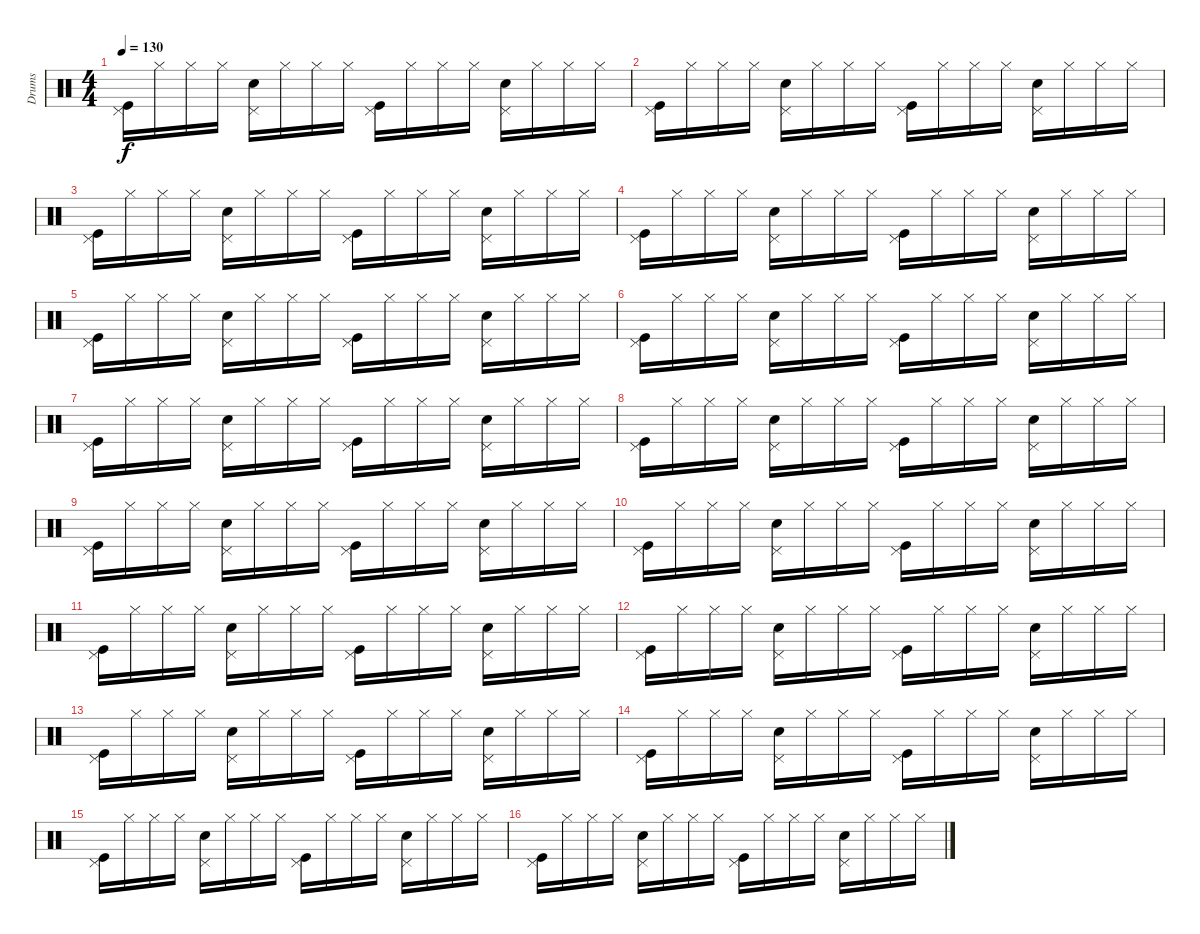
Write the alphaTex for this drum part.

\track ("Drums" "Drums") {instrument percussion}
\staff {score}
\articulation defaults
\ts (4 4)
\tempo 130
\clef neutral
\ks c
("Pedal Hi-Hat (hit)" "Kick (hit)").16{dy f} "Hi-Hat (closed)".16 "Hi-Hat (closed)".16 "Hi-Hat (closed)".16 ("Pedal Hi-Hat (hit)" "Snare (hit) 2").16 "Hi-Hat (closed)".16 "Hi-Hat (closed)".16 "Hi-Hat (closed)".16 ("Pedal Hi-Hat (hit)" "Kick (hit)").16 "Hi-Hat (closed)".16 "Hi-Hat (closed)".16 "Hi-Hat (closed)".16 ("Pedal Hi-Hat (hit)" "Snare (hit) 2").16 "Hi-Hat (closed)".16 "Hi-Hat (closed)".16 "Hi-Hat (closed)".16 |
("Pedal Hi-Hat (hit)" "Kick (hit)").16 "Hi-Hat (closed)".16 "Hi-Hat (closed)".16 "Hi-Hat (closed)".16 ("Pedal Hi-Hat (hit)" "Snare (hit) 2").16 "Hi-Hat (closed)".16 "Hi-Hat (closed)".16 "Hi-Hat (closed)".16 ("Pedal Hi-Hat (hit)" "Kick (hit)").16 "Hi-Hat (closed)".16 "Hi-Hat (closed)".16 "Hi-Hat (closed)".16 ("Pedal Hi-Hat (hit)" "Snare (hit) 2").16 "Hi-Hat (closed)".16 "Hi-Hat (closed)".16 "Hi-Hat (closed)".16 |
("Pedal Hi-Hat (hit)" "Kick (hit)").16 "Hi-Hat (closed)".16 "Hi-Hat (closed)".16 "Hi-Hat (closed)".16 ("Pedal Hi-Hat (hit)" "Snare (hit) 2").16 "Hi-Hat (closed)".16 "Hi-Hat (closed)".16 "Hi-Hat (closed)".16 ("Pedal Hi-Hat (hit)" "Kick (hit)").16 "Hi-Hat (closed)".16 "Hi-Hat (closed)".16 "Hi-Hat (closed)".16 ("Pedal Hi-Hat (hit)" "Snare (hit) 2").16 "Hi-Hat (closed)".16 "Hi-Hat (closed)".16 "Hi-Hat (closed)".16 |
("Pedal Hi-Hat (hit)" "Kick (hit)").16 "Hi-Hat (closed)".16 "Hi-Hat (closed)".16 "Hi-Hat (closed)".16 ("Pedal Hi-Hat (hit)" "Snare (hit) 2").16 "Hi-Hat (closed)".16 "Hi-Hat (closed)".16 "Hi-Hat (closed)".16 ("Pedal Hi-Hat (hit)" "Kick (hit)").16 "Hi-Hat (closed)".16 "Hi-Hat (closed)".16 "Hi-Hat (closed)".16 ("Pedal Hi-Hat (hit)" "Snare (hit) 2").16 "Hi-Hat (closed)".16 "Hi-Hat (closed)".16 "Hi-Hat (closed)".16 |
("Pedal Hi-Hat (hit)" "Kick (hit)").16 "Hi-Hat (closed)".16 "Hi-Hat (closed)".16 "Hi-Hat (closed)".16 ("Pedal Hi-Hat (hit)" "Snare (hit) 2").16 "Hi-Hat (closed)".16 "Hi-Hat (closed)".16 "Hi-Hat (closed)".16 ("Pedal Hi-Hat (hit)" "Kick (hit)").16 "Hi-Hat (closed)".16 "Hi-Hat (closed)".16 "Hi-Hat (closed)".16 ("Pedal Hi-Hat (hit)" "Snare (hit) 2").16 "Hi-Hat (closed)".16 "Hi-Hat (closed)".16 "Hi-Hat (closed)".16 |
("Pedal Hi-Hat (hit)" "Kick (hit)").16 "Hi-Hat (closed)".16 "Hi-Hat (closed)".16 "Hi-Hat (closed)".16 ("Pedal Hi-Hat (hit)" "Snare (hit) 2").16 "Hi-Hat (closed)".16 "Hi-Hat (closed)".16 "Hi-Hat (closed)".16 ("Pedal Hi-Hat (hit)" "Kick (hit)").16 "Hi-Hat (closed)".16 "Hi-Hat (closed)".16 "Hi-Hat (closed)".16 ("Pedal Hi-Hat (hit)" "Snare (hit) 2").16 "Hi-Hat (closed)".16 "Hi-Hat (closed)".16 "Hi-Hat (closed)".16 |
("Pedal Hi-Hat (hit)" "Kick (hit)").16 "Hi-Hat (closed)".16 "Hi-Hat (closed)".16 "Hi-Hat (closed)".16 ("Pedal Hi-Hat (hit)" "Snare (hit) 2").16 "Hi-Hat (closed)".16 "Hi-Hat (closed)".16 "Hi-Hat (closed)".16 ("Pedal Hi-Hat (hit)" "Kick (hit)").16 "Hi-Hat (closed)".16 "Hi-Hat (closed)".16 "Hi-Hat (closed)".16 ("Pedal Hi-Hat (hit)" "Snare (hit) 2").16 "Hi-Hat (closed)".16 "Hi-Hat (closed)".16 "Hi-Hat (closed)".16 |
("Pedal Hi-Hat (hit)" "Kick (hit)").16 "Hi-Hat (closed)".16 "Hi-Hat (closed)".16 "Hi-Hat (closed)".16 ("Pedal Hi-Hat (hit)" "Snare (hit) 2").16 "Hi-Hat (closed)".16 "Hi-Hat (closed)".16 "Hi-Hat (closed)".16 ("Pedal Hi-Hat (hit)" "Kick (hit)").16 "Hi-Hat (closed)".16 "Hi-Hat (closed)".16 "Hi-Hat (closed)".16 ("Pedal Hi-Hat (hit)" "Snare (hit) 2").16 "Hi-Hat (closed)".16 "Hi-Hat (closed)".16 "Hi-Hat (closed)".16 |
("Pedal Hi-Hat (hit)" "Kick (hit)").16 "Hi-Hat (closed)".16 "Hi-Hat (closed)".16 "Hi-Hat (closed)".16 ("Pedal Hi-Hat (hit)" "Snare (hit) 2").16 "Hi-Hat (closed)".16 "Hi-Hat (closed)".16 "Hi-Hat (closed)".16 ("Pedal Hi-Hat (hit)" "Kick (hit)").16 "Hi-Hat (closed)".16 "Hi-Hat (closed)".16 "Hi-Hat (closed)".16 ("Pedal Hi-Hat (hit)" "Snare (hit) 2").16 "Hi-Hat (closed)".16 "Hi-Hat (closed)".16 "Hi-Hat (closed)".16 |
("Pedal Hi-Hat (hit)" "Kick (hit)").16 "Hi-Hat (closed)".16 "Hi-Hat (closed)".16 "Hi-Hat (closed)".16 ("Pedal Hi-Hat (hit)" "Snare (hit) 2").16 "Hi-Hat (closed)".16 "Hi-Hat (closed)".16 "Hi-Hat (closed)".16 ("Pedal Hi-Hat (hit)" "Kick (hit)").16 "Hi-Hat (closed)".16 "Hi-Hat (closed)".16 "Hi-Hat (closed)".16 ("Pedal Hi-Hat (hit)" "Snare (hit) 2").16 "Hi-Hat (closed)".16 "Hi-Hat (closed)".16 "Hi-Hat (closed)".16 |
("Pedal Hi-Hat (hit)" "Kick (hit)").16 "Hi-Hat (closed)".16 "Hi-Hat (closed)".16 "Hi-Hat (closed)".16 ("Pedal Hi-Hat (hit)" "Snare (hit) 2").16 "Hi-Hat (closed)".16 "Hi-Hat (closed)".16 "Hi-Hat (closed)".16 ("Pedal Hi-Hat (hit)" "Kick (hit)").16 "Hi-Hat (closed)".16 "Hi-Hat (closed)".16 "Hi-Hat (closed)".16 ("Pedal Hi-Hat (hit)" "Snare (hit) 2").16 "Hi-Hat (closed)".16 "Hi-Hat (closed)".16 "Hi-Hat (closed)".16 |
("Pedal Hi-Hat (hit)" "Kick (hit)").16 "Hi-Hat (closed)".16 "Hi-Hat (closed)".16 "Hi-Hat (closed)".16 ("Pedal Hi-Hat (hit)" "Snare (hit) 2").16 "Hi-Hat (closed)".16 "Hi-Hat (closed)".16 "Hi-Hat (closed)".16 ("Pedal Hi-Hat (hit)" "Kick (hit)").16 "Hi-Hat (closed)".16 "Hi-Hat (closed)".16 "Hi-Hat (closed)".16 ("Pedal Hi-Hat (hit)" "Snare (hit) 2").16 "Hi-Hat (closed)".16 "Hi-Hat (closed)".16 "Hi-Hat (closed)".16 |
("Pedal Hi-Hat (hit)" "Kick (hit)").16 "Hi-Hat (closed)".16 "Hi-Hat (closed)".16 "Hi-Hat (closed)".16 ("Pedal Hi-Hat (hit)" "Snare (hit) 2").16 "Hi-Hat (closed)".16 "Hi-Hat (closed)".16 "Hi-Hat (closed)".16 ("Pedal Hi-Hat (hit)" "Kick (hit)").16 "Hi-Hat (closed)".16 "Hi-Hat (closed)".16 "Hi-Hat (closed)".16 ("Pedal Hi-Hat (hit)" "Snare (hit) 2").16 "Hi-Hat (closed)".16 "Hi-Hat (closed)".16 "Hi-Hat (closed)".16 |
("Pedal Hi-Hat (hit)" "Kick (hit)").16 "Hi-Hat (closed)".16 "Hi-Hat (closed)".16 "Hi-Hat (closed)".16 ("Pedal Hi-Hat (hit)" "Snare (hit) 2").16 "Hi-Hat (closed)".16 "Hi-Hat (closed)".16 "Hi-Hat (closed)".16 ("Pedal Hi-Hat (hit)" "Kick (hit)").16 "Hi-Hat (closed)".16 "Hi-Hat (closed)".16 "Hi-Hat (closed)".16 ("Pedal Hi-Hat (hit)" "Snare (hit) 2").16 "Hi-Hat (closed)".16 "Hi-Hat (closed)".16 "Hi-Hat (closed)".16 |
("Pedal Hi-Hat (hit)" "Kick (hit)").16 "Hi-Hat (closed)".16 "Hi-Hat (closed)".16 "Hi-Hat (closed)".16 ("Pedal Hi-Hat (hit)" "Snare (hit) 2").16 "Hi-Hat (closed)".16 "Hi-Hat (closed)".16 "Hi-Hat (closed)".16 ("Pedal Hi-Hat (hit)" "Kick (hit)").16 "Hi-Hat (closed)".16 "Hi-Hat (closed)".16 "Hi-Hat (closed)".16 ("Pedal Hi-Hat (hit)" "Snare (hit) 2").16 "Hi-Hat (closed)".16 "Hi-Hat (closed)".16 "Hi-Hat (closed)".16 |
("Pedal Hi-Hat (hit)" "Kick (hit)").16 "Hi-Hat (closed)".16 "Hi-Hat (closed)".16 "Hi-Hat (closed)".16 ("Pedal Hi-Hat (hit)" "Snare (hit) 2").16 "Hi-Hat (closed)".16 "Hi-Hat (closed)".16 "Hi-Hat (closed)".16 ("Pedal Hi-Hat (hit)" "Kick (hit)").16 "Hi-Hat (closed)".16 "Hi-Hat (closed)".16 "Hi-Hat (closed)".16 ("Pedal Hi-Hat (hit)" "Snare (hit) 2").16 "Hi-Hat (closed)".16 "Hi-Hat (closed)".16 "Hi-Hat (closed)".16
